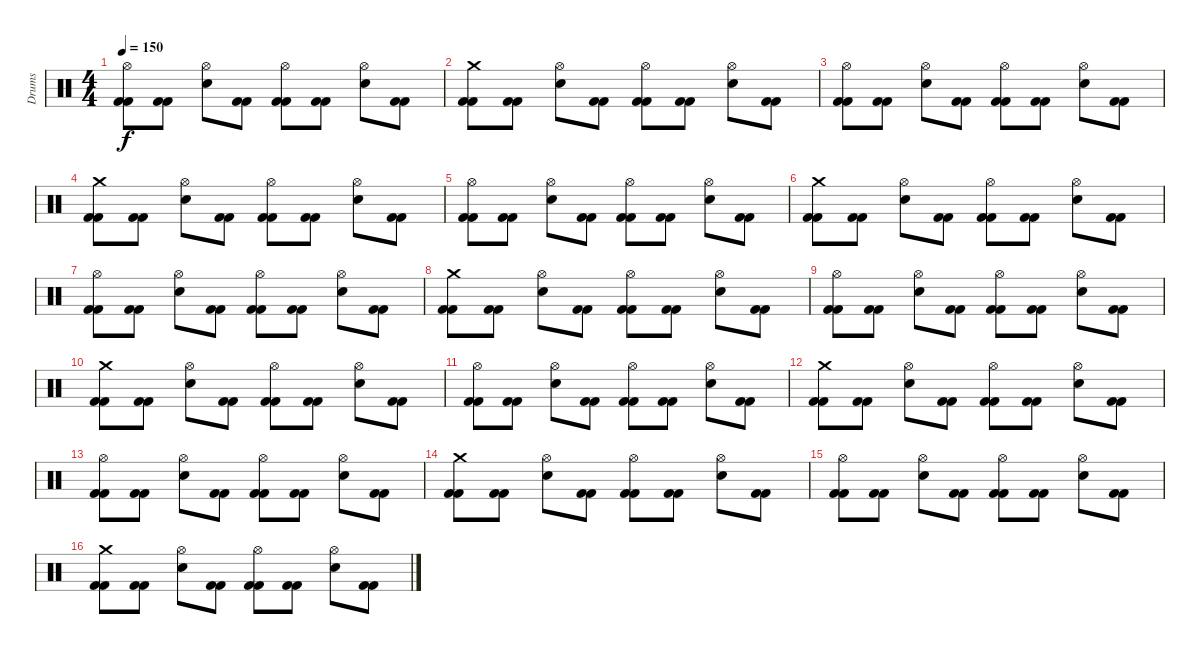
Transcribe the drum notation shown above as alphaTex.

\track ("Drums" "Drums") {instrument percussion}
\staff {score}
\articulation defaults
\ts (4 4)
\tempo 150
\clef neutral
\ks c
("Hi-Hat (open)" "Kick (hit) 2" "Kick (hit) 2").8{dy f} ("Kick (hit) 2" "Kick (hit) 2").8 ("Hi-Hat (open)" "Electric Snare (hit)").8 ("Kick (hit) 2" "Kick (hit) 2").8 ("Hi-Hat (open)" "Kick (hit) 2" "Kick (hit) 2").8 ("Kick (hit) 2" "Kick (hit) 2").8 ("Electric Snare (hit)" "Hi-Hat (open)").8 ("Kick (hit) 2" "Kick (hit) 2").8 |
("Crash medium (hit)" "Kick (hit) 2" "Kick (hit) 2").8 ("Kick (hit) 2" "Kick (hit) 2").8 ("Hi-Hat (open)" "Electric Snare (hit)").8 ("Kick (hit) 2" "Kick (hit) 2").8 ("Hi-Hat (open)" "Kick (hit) 2" "Kick (hit) 2").8 ("Kick (hit) 2" "Kick (hit) 2").8 ("Electric Snare (hit)" "Hi-Hat (open)").8 ("Kick (hit) 2" "Kick (hit) 2").8 |
("Hi-Hat (open)" "Kick (hit) 2" "Kick (hit) 2").8 ("Kick (hit) 2" "Kick (hit) 2").8 ("Hi-Hat (open)" "Electric Snare (hit)").8 ("Kick (hit) 2" "Kick (hit) 2").8 ("Hi-Hat (open)" "Kick (hit) 2" "Kick (hit) 2").8 ("Kick (hit) 2" "Kick (hit) 2").8 ("Electric Snare (hit)" "Hi-Hat (open)").8 ("Kick (hit) 2" "Kick (hit) 2").8 |
("Crash medium (hit)" "Kick (hit) 2" "Kick (hit) 2").8 ("Kick (hit) 2" "Kick (hit) 2").8 ("Hi-Hat (open)" "Electric Snare (hit)").8 ("Kick (hit) 2" "Kick (hit) 2").8 ("Hi-Hat (open)" "Kick (hit) 2" "Kick (hit) 2").8 ("Kick (hit) 2" "Kick (hit) 2").8 ("Electric Snare (hit)" "Hi-Hat (open)").8 ("Kick (hit) 2" "Kick (hit) 2").8 |
("Hi-Hat (open)" "Kick (hit) 2" "Kick (hit) 2").8 ("Kick (hit) 2" "Kick (hit) 2").8 ("Hi-Hat (open)" "Electric Snare (hit)").8 ("Kick (hit) 2" "Kick (hit) 2").8 ("Hi-Hat (open)" "Kick (hit) 2" "Kick (hit) 2").8 ("Kick (hit) 2" "Kick (hit) 2").8 ("Electric Snare (hit)" "Hi-Hat (open)").8 ("Kick (hit) 2" "Kick (hit) 2").8 |
("Crash medium (hit)" "Kick (hit) 2" "Kick (hit) 2").8 ("Kick (hit) 2" "Kick (hit) 2").8 ("Hi-Hat (open)" "Electric Snare (hit)").8 ("Kick (hit) 2" "Kick (hit) 2").8 ("Hi-Hat (open)" "Kick (hit) 2" "Kick (hit) 2").8 ("Kick (hit) 2" "Kick (hit) 2").8 ("Electric Snare (hit)" "Hi-Hat (open)").8 ("Kick (hit) 2" "Kick (hit) 2").8 |
("Hi-Hat (open)" "Kick (hit) 2" "Kick (hit) 2").8 ("Kick (hit) 2" "Kick (hit) 2").8 ("Hi-Hat (open)" "Electric Snare (hit)").8 ("Kick (hit) 2" "Kick (hit) 2").8 ("Hi-Hat (open)" "Kick (hit) 2" "Kick (hit) 2").8 ("Kick (hit) 2" "Kick (hit) 2").8 ("Electric Snare (hit)" "Hi-Hat (open)").8 ("Kick (hit) 2" "Kick (hit) 2").8 |
("Crash medium (hit)" "Kick (hit) 2" "Kick (hit) 2").8 ("Kick (hit) 2" "Kick (hit) 2").8 ("Hi-Hat (open)" "Electric Snare (hit)").8 ("Kick (hit) 2" "Kick (hit) 2").8 ("Hi-Hat (open)" "Kick (hit) 2" "Kick (hit) 2").8 ("Kick (hit) 2" "Kick (hit) 2").8 ("Electric Snare (hit)" "Hi-Hat (open)").8 ("Kick (hit) 2" "Kick (hit) 2").8 |
("Hi-Hat (open)" "Kick (hit) 2" "Kick (hit) 2").8 ("Kick (hit) 2" "Kick (hit) 2").8 ("Hi-Hat (open)" "Electric Snare (hit)").8 ("Kick (hit) 2" "Kick (hit) 2").8 ("Hi-Hat (open)" "Kick (hit) 2" "Kick (hit) 2").8 ("Kick (hit) 2" "Kick (hit) 2").8 ("Electric Snare (hit)" "Hi-Hat (open)").8 ("Kick (hit) 2" "Kick (hit) 2").8 |
("Crash medium (hit)" "Kick (hit) 2" "Kick (hit) 2").8 ("Kick (hit) 2" "Kick (hit) 2").8 ("Hi-Hat (open)" "Electric Snare (hit)").8 ("Kick (hit) 2" "Kick (hit) 2").8 ("Hi-Hat (open)" "Kick (hit) 2" "Kick (hit) 2").8 ("Kick (hit) 2" "Kick (hit) 2").8 ("Electric Snare (hit)" "Hi-Hat (open)").8 ("Kick (hit) 2" "Kick (hit) 2").8 |
("Hi-Hat (open)" "Kick (hit) 2" "Kick (hit) 2").8 ("Kick (hit) 2" "Kick (hit) 2").8 ("Hi-Hat (open)" "Electric Snare (hit)").8 ("Kick (hit) 2" "Kick (hit) 2").8 ("Hi-Hat (open)" "Kick (hit) 2" "Kick (hit) 2").8 ("Kick (hit) 2" "Kick (hit) 2").8 ("Electric Snare (hit)" "Hi-Hat (open)").8 ("Kick (hit) 2" "Kick (hit) 2").8 |
("Crash medium (hit)" "Kick (hit) 2" "Kick (hit) 2").8 ("Kick (hit) 2" "Kick (hit) 2").8 ("Hi-Hat (open)" "Electric Snare (hit)").8 ("Kick (hit) 2" "Kick (hit) 2").8 ("Hi-Hat (open)" "Kick (hit) 2" "Kick (hit) 2").8 ("Kick (hit) 2" "Kick (hit) 2").8 ("Electric Snare (hit)" "Hi-Hat (open)").8 ("Kick (hit) 2" "Kick (hit) 2").8 |
("Hi-Hat (open)" "Kick (hit) 2" "Kick (hit) 2").8 ("Kick (hit) 2" "Kick (hit) 2").8 ("Hi-Hat (open)" "Electric Snare (hit)").8 ("Kick (hit) 2" "Kick (hit) 2").8 ("Hi-Hat (open)" "Kick (hit) 2" "Kick (hit) 2").8 ("Kick (hit) 2" "Kick (hit) 2").8 ("Electric Snare (hit)" "Hi-Hat (open)").8 ("Kick (hit) 2" "Kick (hit) 2").8 |
("Crash medium (hit)" "Kick (hit) 2" "Kick (hit) 2").8 ("Kick (hit) 2" "Kick (hit) 2").8 ("Hi-Hat (open)" "Electric Snare (hit)").8 ("Kick (hit) 2" "Kick (hit) 2").8 ("Hi-Hat (open)" "Kick (hit) 2" "Kick (hit) 2").8 ("Kick (hit) 2" "Kick (hit) 2").8 ("Electric Snare (hit)" "Hi-Hat (open)").8 ("Kick (hit) 2" "Kick (hit) 2").8 |
("Hi-Hat (open)" "Kick (hit) 2" "Kick (hit) 2").8 ("Kick (hit) 2" "Kick (hit) 2").8 ("Hi-Hat (open)" "Electric Snare (hit)").8 ("Kick (hit) 2" "Kick (hit) 2").8 ("Hi-Hat (open)" "Kick (hit) 2" "Kick (hit) 2").8 ("Kick (hit) 2" "Kick (hit) 2").8 ("Electric Snare (hit)" "Hi-Hat (open)").8 ("Kick (hit) 2" "Kick (hit) 2").8 |
("Crash medium (hit)" "Kick (hit) 2" "Kick (hit) 2").8 ("Kick (hit) 2" "Kick (hit) 2").8 ("Hi-Hat (open)" "Electric Snare (hit)").8 ("Kick (hit) 2" "Kick (hit) 2").8 ("Hi-Hat (open)" "Kick (hit) 2" "Kick (hit) 2").8 ("Kick (hit) 2" "Kick (hit) 2").8 ("Electric Snare (hit)" "Hi-Hat (open)").8 ("Kick (hit) 2" "Kick (hit) 2").8
